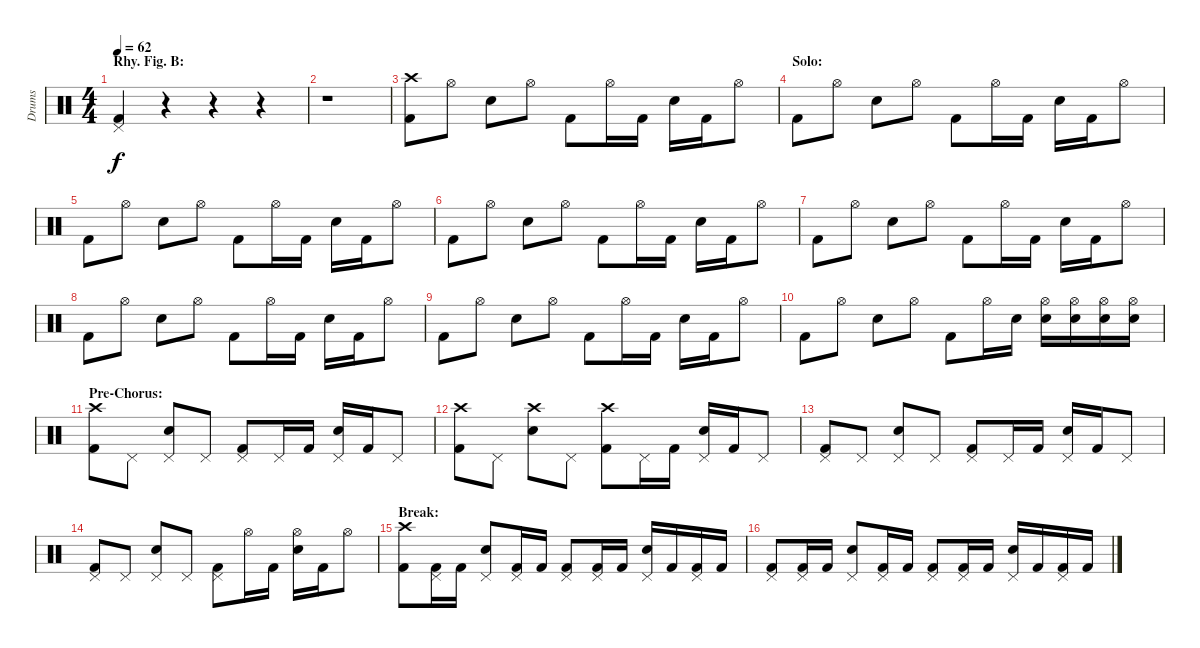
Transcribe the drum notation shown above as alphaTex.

\track ("Drums" "Drums") {instrument percussion}
\staff {score}
\articulation defaults
\ts (4 4)
\section ("" "Rhy. Fig. B:")
\tempo 62
\clef neutral
\ks c
("Pedal Hi-Hat (hit)" "Kick (hit) 2").4{dy f} r.4 r.4 r.4 |
r.1 |
("Crash high (hit)" "Kick (hit) 2").8 "Hi-Hat (open)".8 "Snare (hit) 2".8 "Hi-Hat (open)".8 "Kick (hit) 2".8 "Hi-Hat (open)".16 "Kick (hit) 2".16 "Snare (hit) 2".16 "Kick (hit) 2".16 "Hi-Hat (open)".8 |
\section ("" "Solo:")
"Kick (hit) 2".8 "Hi-Hat (open)".8 "Snare (hit) 2".8 "Hi-Hat (open)".8 "Kick (hit) 2".8 "Hi-Hat (open)".16 "Kick (hit) 2".16 "Snare (hit) 2".16 "Kick (hit) 2".16 "Hi-Hat (open)".8 |
"Kick (hit) 2".8 "Hi-Hat (open)".8 "Snare (hit) 2".8 "Hi-Hat (open)".8 "Kick (hit) 2".8 "Hi-Hat (open)".16 "Kick (hit) 2".16 "Snare (hit) 2".16 "Kick (hit) 2".16 "Hi-Hat (open)".8 |
"Kick (hit) 2".8 "Hi-Hat (open)".8 "Snare (hit) 2".8 "Hi-Hat (open)".8 "Kick (hit) 2".8 "Hi-Hat (open)".16 "Kick (hit) 2".16 "Snare (hit) 2".16 "Kick (hit) 2".16 "Hi-Hat (open)".8 |
"Kick (hit) 2".8 "Hi-Hat (open)".8 "Snare (hit) 2".8 "Hi-Hat (open)".8 "Kick (hit) 2".8 "Hi-Hat (open)".16 "Kick (hit) 2".16 "Snare (hit) 2".16 "Kick (hit) 2".16 "Hi-Hat (open)".8 |
"Kick (hit) 2".8 "Hi-Hat (open)".8 "Snare (hit) 2".8 "Hi-Hat (open)".8 "Kick (hit) 2".8 "Hi-Hat (open)".16 "Kick (hit) 2".16 "Snare (hit) 2".16 "Kick (hit) 2".16 "Hi-Hat (open)".8 |
"Kick (hit) 2".8 "Hi-Hat (open)".8 "Snare (hit) 2".8 "Hi-Hat (open)".8 "Kick (hit) 2".8 "Hi-Hat (open)".16 "Kick (hit) 2".16 "Snare (hit) 2".16 "Kick (hit) 2".16 "Hi-Hat (open)".8 |
"Kick (hit) 2".8 "Hi-Hat (open)".8 "Snare (hit) 2".8 "Hi-Hat (open)".8 "Kick (hit) 2".8 "Hi-Hat (open)".16 "Snare (hit) 2".16 ("Hi-Hat (open)" "Snare (hit) 2").16 ("Hi-Hat (open)" "Snare (hit) 2").16 ("Hi-Hat (open)" "Snare (hit) 2").16 ("Hi-Hat (open)" "Snare (hit) 2").16 |
\section ("" "Pre-Chorus:")
("Crash high (hit)" "Kick (hit) 2").8 "Pedal Hi-Hat (hit)".8 ("Pedal Hi-Hat (hit)" "Snare (hit) 2").8 "Pedal Hi-Hat (hit)".8 ("Pedal Hi-Hat (hit)" "Kick (hit) 2").8 "Pedal Hi-Hat (hit)".16 "Kick (hit) 2".16 ("Pedal Hi-Hat (hit)" "Snare (hit) 2").16 "Kick (hit) 2".16 "Pedal Hi-Hat (hit)".8 |
("Crash high (hit)" "Kick (hit) 2").8 "Pedal Hi-Hat (hit)".8 ("Crash high (hit)" "Snare (hit) 2").8 "Pedal Hi-Hat (hit)".8 ("Crash high (hit)" "Kick (hit) 2").8 "Pedal Hi-Hat (hit)".16 "Kick (hit) 2".16 ("Pedal Hi-Hat (hit)" "Snare (hit) 2").16 "Kick (hit) 2".16 "Pedal Hi-Hat (hit)".8 |
("Pedal Hi-Hat (hit)" "Kick (hit) 2").8 "Pedal Hi-Hat (hit)".8 ("Pedal Hi-Hat (hit)" "Snare (hit) 2").8 "Pedal Hi-Hat (hit)".8 ("Pedal Hi-Hat (hit)" "Kick (hit) 2").8 "Pedal Hi-Hat (hit)".16 "Kick (hit) 2".16 ("Pedal Hi-Hat (hit)" "Snare (hit) 2").16 "Kick (hit) 2".16 "Pedal Hi-Hat (hit)".8 |
("Pedal Hi-Hat (hit)" "Kick (hit) 2").8 "Pedal Hi-Hat (hit)".8 ("Pedal Hi-Hat (hit)" "Snare (hit) 2").8 "Pedal Hi-Hat (hit)".8 ("Pedal Hi-Hat (hit)" "Kick (hit) 2").8 "Hi-Hat (open)".16 "Kick (hit) 2".16 ("Hi-Hat (open)" "Snare (hit) 2").16 "Kick (hit) 2".16 "Hi-Hat (open)".8 |
\section ("" "Break:")
("Crash high (hit)" "Kick (hit) 2").8 ("Pedal Hi-Hat (hit)" "Kick (hit) 2").16 "Kick (hit) 2".16 ("Pedal Hi-Hat (hit)" "Snare (hit) 2").8 ("Pedal Hi-Hat (hit)" "Kick (hit) 2").16 "Kick (hit) 2".16 ("Pedal Hi-Hat (hit)" "Kick (hit) 2").8 ("Pedal Hi-Hat (hit)" "Kick (hit) 2").16 "Kick (hit) 2".16 ("Pedal Hi-Hat (hit)" "Snare (hit) 2").16 "Kick (hit) 2".16 ("Pedal Hi-Hat (hit)" "Kick (hit) 2").16 "Kick (hit) 2".16 |
("Pedal Hi-Hat (hit)" "Kick (hit) 2").8 ("Pedal Hi-Hat (hit)" "Kick (hit) 2").16 "Kick (hit) 2".16 ("Pedal Hi-Hat (hit)" "Snare (hit) 2").8 ("Pedal Hi-Hat (hit)" "Kick (hit) 2").16 "Kick (hit) 2".16 ("Pedal Hi-Hat (hit)" "Kick (hit) 2").8 ("Pedal Hi-Hat (hit)" "Kick (hit) 2").16 "Kick (hit) 2".16 ("Pedal Hi-Hat (hit)" "Snare (hit) 2").16 "Kick (hit) 2".16 ("Pedal Hi-Hat (hit)" "Kick (hit) 2").16 "Kick (hit) 2".16
